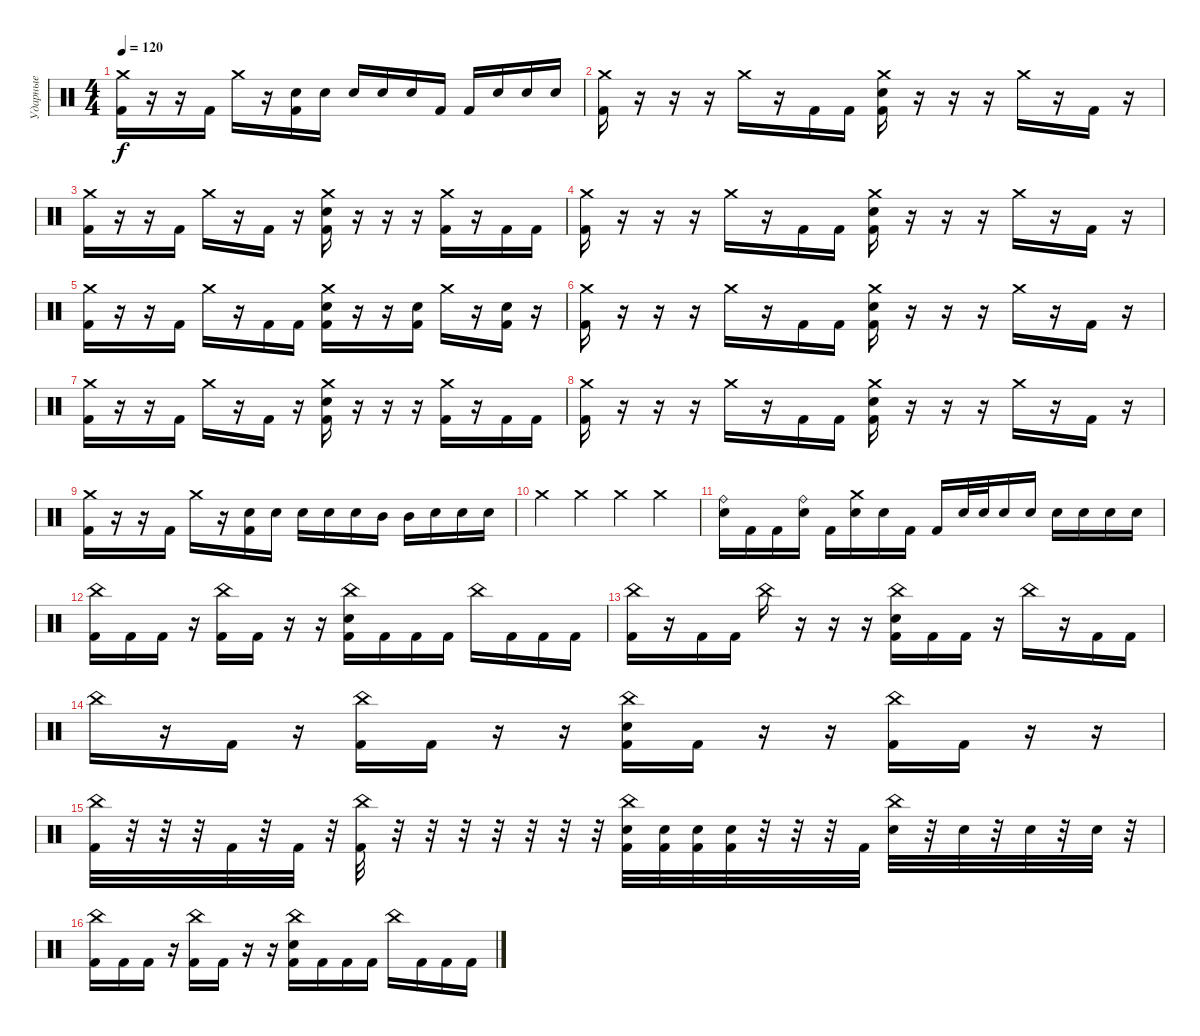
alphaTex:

\track ("Ударные" "Ударные") {instrument percussion}
\staff {score}
\articulation defaults
\ts (4 4)
\tempo 120
\clef neutral
\ks c
("Crash medium (hit)" "Kick (hit) 2").16{dy f} r.16 r.16 "Kick (hit) 2".16 "Crash medium (hit)".16 r.16 ("Electric Snare (hit)" "Kick (hit) 2").16 "Electric Snare (hit)".16 "Electric Snare (hit)".16 "Electric Snare (hit)".16 "Electric Snare (hit)".16 "Kick (hit) 2".16 "Kick (hit) 2".16 "Electric Snare (hit)".16 "Electric Snare (hit)".16 "Electric Snare (hit)".16 |
("Crash medium (hit)" "Kick (hit) 2").16 r.16 r.16 r.16 "Crash medium (hit)".16 r.16 "Kick (hit) 2".16 "Kick (hit) 2".16 ("Crash medium (hit)" "Electric Snare (hit)" "Kick (hit) 2").16 r.16 r.16 r.16 "Crash medium (hit)".16 r.16 "Kick (hit) 2".16 r.16 |
("Crash medium (hit)" "Kick (hit) 2").16 r.16 r.16 "Kick (hit) 2".16 "Crash medium (hit)".16 r.16 "Kick (hit) 2".16 r.16 ("Crash medium (hit)" "Electric Snare (hit)" "Kick (hit) 2").16 r.16 r.16 r.16 ("Crash medium (hit)" "Kick (hit) 2").16 r.16 "Kick (hit) 2".16 "Kick (hit) 2".16 |
("Crash medium (hit)" "Kick (hit) 2").16 r.16 r.16 r.16 "Crash medium (hit)".16 r.16 "Kick (hit) 2".16 "Kick (hit) 2".16 ("Crash medium (hit)" "Electric Snare (hit)" "Kick (hit) 2").16 r.16 r.16 r.16 "Crash medium (hit)".16 r.16 "Kick (hit) 2".16 r.16 |
("Crash medium (hit)" "Kick (hit) 2").16 r.16 r.16 "Kick (hit) 2".16 "Crash medium (hit)".16 r.16 "Kick (hit) 2".16 "Kick (hit) 2".16 ("Crash medium (hit)" "Electric Snare (hit)" "Kick (hit) 2").16 r.16 r.16 ("Electric Snare (hit)" "Kick (hit) 2").16 "Crash medium (hit)".16 r.16 ("Electric Snare (hit)" "Kick (hit) 2").16 r.16 |
("Crash medium (hit)" "Kick (hit) 2").16 r.16 r.16 r.16 "Crash medium (hit)".16 r.16 "Kick (hit) 2".16 "Kick (hit) 2".16 ("Crash medium (hit)" "Electric Snare (hit)" "Kick (hit) 2").16 r.16 r.16 r.16 "Crash medium (hit)".16 r.16 "Kick (hit) 2".16 r.16 |
("Crash medium (hit)" "Kick (hit) 2").16 r.16 r.16 "Kick (hit) 2".16 "Crash medium (hit)".16 r.16 "Kick (hit) 2".16 r.16 ("Crash medium (hit)" "Electric Snare (hit)" "Kick (hit) 2").16 r.16 r.16 r.16 ("Crash medium (hit)" "Kick (hit) 2").16 r.16 "Kick (hit) 2".16 "Kick (hit) 2".16 |
("Crash medium (hit)" "Kick (hit) 2").16 r.16 r.16 r.16 "Crash medium (hit)".16 r.16 "Kick (hit) 2".16 "Kick (hit) 2".16 ("Crash medium (hit)" "Electric Snare (hit)" "Kick (hit) 2").16 r.16 r.16 r.16 "Crash medium (hit)".16 r.16 "Kick (hit) 2".16 r.16 |
("Crash medium (hit)" "Kick (hit) 2").16 r.16 r.16 "Kick (hit) 2".16 "Crash medium (hit)".16 r.16 ("Electric Snare (hit)" "Kick (hit) 2").16 "Electric Snare (hit)".16 "Electric Snare (hit)".16 "Electric Snare (hit)".16 "Electric Snare (hit)".16 "Mid Tom (hit)".16 "Mid Tom (hit)".16 "Electric Snare (hit)".16 "Electric Snare (hit)".16 "Electric Snare (hit)".16 |
"Crash medium (hit)".4 "Crash medium (hit)".4 "Crash medium (hit)".4 "Crash medium (hit)".4 |
("Ride (bell)" "Electric Snare (hit)").16 "Kick (hit) 2".16 "Kick (hit) 2".16 ("Ride (bell)" "Electric Snare (hit)").16 "Kick (hit) 2".16 ("Crash medium (hit)" "Electric Snare (hit)").16 "Electric Snare (hit)".16 "Kick (hit) 2".16 "Kick (hit) 2".16 "Electric Snare (hit)".32 "Electric Snare (hit)".32 "Electric Snare (hit)".16 "Electric Snare (hit)".16 "Electric Snare (hit)".16 "Electric Snare (hit)".16 "Electric Snare (hit)".16 "Electric Snare (hit)".16 |
("China (hit)" "Kick (hit) 2").16 "Kick (hit) 2".16 "Kick (hit) 2".16 r.16 ("China (hit)" "Kick (hit) 2").16 "Kick (hit) 2".16 r.16 r.16 ("China (hit)" "Electric Snare (hit)" "Kick (hit) 2").16 "Kick (hit) 2".16 "Kick (hit) 2".16 "Kick (hit) 2".16 "China (hit)".16 "Kick (hit) 2".16 "Kick (hit) 2".16 "Kick (hit) 2".16 |
("China (hit)" "Kick (hit) 2").16 r.16 "Kick (hit) 2".16 "Kick (hit) 2".16 "China (hit)".16 r.16 r.16 r.16 ("China (hit)" "Electric Snare (hit)" "Kick (hit) 2").16 "Kick (hit) 2".16 "Kick (hit) 2".16 r.16 "China (hit)".16 r.16 "Kick (hit) 2".16 "Kick (hit) 2".16 |
"China (hit)".16 r.16 "Kick (hit) 2".16 r.16 ("China (hit)" "Kick (hit) 2").16 "Kick (hit) 2".16 r.16 r.16 ("China (hit)" "Electric Snare (hit)" "Kick (hit) 2").16 "Kick (hit) 2".16 r.16 r.16 ("China (hit)" "Kick (hit) 2").16 "Kick (hit) 2".16 r.16 r.16 |
("China (hit)" "Kick (hit) 2").32 r.32 r.32 r.32 "Kick (hit) 2".32 r.32 "Kick (hit) 2".32 r.32 ("China (hit)" "Kick (hit) 2").32 r.32 r.32 r.32 r.32 r.32 r.32 r.32 ("China (hit)" "Electric Snare (hit)" "Kick (hit) 2").32 ("Electric Snare (hit)" "Kick (hit) 2").32 ("Electric Snare (hit)" "Kick (hit) 2").32 ("Electric Snare (hit)" "Kick (hit) 2").32 r.32 r.32 r.32 "Kick (hit) 2".32 ("China (hit)" "Electric Snare (hit)").32 r.32 "Electric Snare (hit)".32 r.32 "Electric Snare (hit)".32 r.32 "Electric Snare (hit)".32 r.32 |
("China (hit)" "Kick (hit) 2").16 "Kick (hit) 2".16 "Kick (hit) 2".16 r.16 ("China (hit)" "Kick (hit) 2").16 "Kick (hit) 2".16 r.16 r.16 ("China (hit)" "Electric Snare (hit)" "Kick (hit) 2").16 "Kick (hit) 2".16 "Kick (hit) 2".16 "Kick (hit) 2".16 "China (hit)".16 "Kick (hit) 2".16 "Kick (hit) 2".16 "Kick (hit) 2".16
